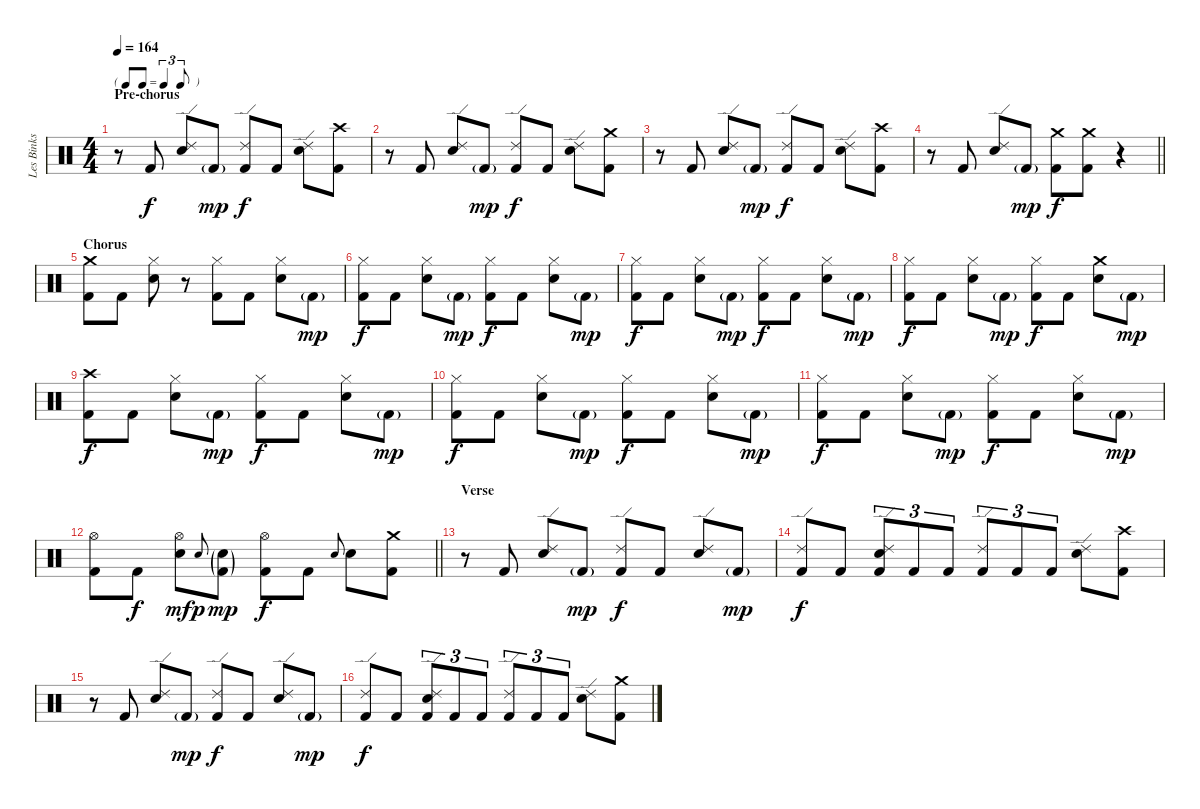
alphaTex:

\track ("Les Binks" "Les Binks") {instrument percussion}
\staff {score}
\articulation defaults
\ts (4 4)
\tf triplet8th
\section ("" "Pre-chorus")
\tempo 164
\clef neutral
\ks c
r.8{dy f} "Kick (hit) 2".8 ("Ride (edge) 2" "Electric Snare (hit)").8 "Kick (hit) 2"{g}.8{dy mp} ("Ride (edge) 2" "Kick (hit) 2").8{dy f} "Kick (hit) 2".8 ("Ride (edge) 2" "Electric Snare (hit)").8 ("Crash high (hit)" "Kick (hit) 2").8 |
r.8 "Kick (hit) 2".8 ("Ride (edge) 2" "Electric Snare (hit)").8 "Kick (hit) 2"{g}.8{dy mp} ("Ride (edge) 2" "Kick (hit) 2").8{dy f} "Kick (hit) 2".8 ("Ride (edge) 2" "Electric Snare (hit)").8 ("Crash medium (hit)" "Kick (hit) 2").8 |
r.8 "Kick (hit) 2".8 ("Ride (edge) 2" "Electric Snare (hit)").8 "Kick (hit) 2"{g}.8{dy mp} ("Ride (edge) 2" "Kick (hit) 2").8{dy f} "Kick (hit) 2".8 ("Ride (edge) 2" "Electric Snare (hit)").8 ("Crash high (hit)" "Kick (hit) 2").8 |
\barLineRight lightlight
r.8 "Kick (hit) 2".8 ("Ride (edge) 2" "Electric Snare (hit)").8 "Kick (hit) 2"{g}.8{dy mp} ("Crash medium (hit)" "Kick (hit) 2").8{dy f} ("Crash medium (hit)" "Kick (hit) 2").8 r.4 |
\section ("" "Chorus")
("Crash medium (hit)" "Kick (hit) 2").8 "Kick (hit) 2".8 ("Hi-Hat (closed)" "Electric Snare (hit)").8 r.8 ("Hi-Hat (closed)" "Kick (hit) 2").8 "Kick (hit) 2".8 ("Hi-Hat (closed)" "Electric Snare (hit)").8 "Kick (hit) 2"{g}.8{dy mp} |
("Hi-Hat (closed)" "Kick (hit) 2").8{dy f} "Kick (hit) 2".8 ("Hi-Hat (closed)" "Electric Snare (hit)").8 "Kick (hit) 2"{g}.8{dy mp} ("Hi-Hat (closed)" "Kick (hit) 2").8{dy f} "Kick (hit) 2".8 ("Hi-Hat (closed)" "Electric Snare (hit)").8 "Kick (hit) 2"{g}.8{dy mp} |
("Hi-Hat (closed)" "Kick (hit) 2").8{dy f} "Kick (hit) 2".8 ("Hi-Hat (closed)" "Electric Snare (hit)").8 "Kick (hit) 2"{g}.8{dy mp} ("Hi-Hat (closed)" "Kick (hit) 2").8{dy f} "Kick (hit) 2".8 ("Hi-Hat (closed)" "Electric Snare (hit)").8 "Kick (hit) 2"{g}.8{dy mp} |
("Hi-Hat (closed)" "Kick (hit) 2").8{dy f} "Kick (hit) 2".8 ("Hi-Hat (closed)" "Electric Snare (hit)").8 "Kick (hit) 2"{g}.8{dy mp} ("Hi-Hat (closed)" "Kick (hit) 2").8{dy f} "Kick (hit) 2".8 ("Crash medium (hit)" "Electric Snare (hit)").8 "Kick (hit) 2"{g}.8{dy mp} |
("Crash high (hit)" "Kick (hit) 2").8{dy f} "Kick (hit) 2".8 ("Hi-Hat (closed)" "Electric Snare (hit)").8 "Kick (hit) 2"{g}.8{dy mp} ("Hi-Hat (closed)" "Kick (hit) 2").8{dy f} "Kick (hit) 2".8 ("Hi-Hat (closed)" "Electric Snare (hit)").8 "Kick (hit) 2"{g}.8{dy mp} |
("Hi-Hat (closed)" "Kick (hit) 2").8{dy f} "Kick (hit) 2".8 ("Hi-Hat (closed)" "Electric Snare (hit)").8 "Kick (hit) 2"{g}.8{dy mp} ("Hi-Hat (closed)" "Kick (hit) 2").8{dy f} "Kick (hit) 2".8 ("Hi-Hat (closed)" "Electric Snare (hit)").8 "Kick (hit) 2"{g}.8{dy mp} |
("Hi-Hat (closed)" "Kick (hit) 2").8{dy f} "Kick (hit) 2".8 ("Hi-Hat (closed)" "Electric Snare (hit)").8 "Kick (hit) 2"{g}.8{dy mp} ("Hi-Hat (closed)" "Kick (hit) 2").8{dy f} "Kick (hit) 2".8 ("Hi-Hat (closed)" "Electric Snare (hit)").8 "Kick (hit) 2"{g}.8{dy mp} |
\barLineRight lightlight
("Hi-Hat (open)" "Kick (hit) 2").8 "Kick (hit) 2".8{dy f} ("Hi-Hat (open)" "Electric Snare (hit)").8{dy mf} "Electric Snare (hit)".8{gr onbeat dy p} ("Electric Snare (hit)"{g} "Kick (hit) 2"{g}).8{dy mp} ("Hi-Hat (open)" "Kick (hit) 2").8{dy f} "Kick (hit) 2".8 "Electric Snare (hit)".8{gr onbeat} "Electric Snare (hit)".8 ("Crash medium (hit)" "Kick (hit) 2").8 |
\section ("" "Verse")
r.8 "Kick (hit) 2".8 ("Ride (edge) 2" "Electric Snare (hit)").8 "Kick (hit) 2"{g}.8{dy mp} ("Ride (edge) 2" "Kick (hit) 2").8{dy f} "Kick (hit) 2".8 ("Ride (edge) 2" "Electric Snare (hit)").8 "Kick (hit) 2"{g}.8{dy mp} |
("Ride (edge) 2" "Kick (hit) 2").8{dy f} "Kick (hit) 2".8 ("Ride (edge) 2" "Electric Snare (hit)" "Kick (hit) 2").8{tu (3 2)} "Kick (hit) 2".8{tu (3 2)} "Kick (hit) 2".8{tu (3 2)} ("Ride (edge) 2" "Kick (hit) 2").8{tu (3 2)} "Kick (hit) 2".8{tu (3 2)} "Kick (hit) 2".8{tu (3 2)} ("Ride (edge) 2" "Electric Snare (hit)").8 ("Crash high (hit)" "Kick (hit) 2").8 |
r.8 "Kick (hit) 2".8 ("Ride (edge) 2" "Electric Snare (hit)").8 "Kick (hit) 2"{g}.8{dy mp} ("Ride (edge) 2" "Kick (hit) 2").8{dy f} "Kick (hit) 2".8 ("Ride (edge) 2" "Electric Snare (hit)").8 "Kick (hit) 2"{g}.8{dy mp} |
("Ride (edge) 2" "Kick (hit) 2").8{dy f} "Kick (hit) 2".8 ("Ride (edge) 2" "Electric Snare (hit)" "Kick (hit) 2").8{tu (3 2)} "Kick (hit) 2".8{tu (3 2)} "Kick (hit) 2".8{tu (3 2)} ("Ride (edge) 2" "Kick (hit) 2").8{tu (3 2)} "Kick (hit) 2".8{tu (3 2)} "Kick (hit) 2".8{tu (3 2)} ("Ride (edge) 2" "Electric Snare (hit)").8 ("Crash medium (hit)" "Kick (hit) 2").8
